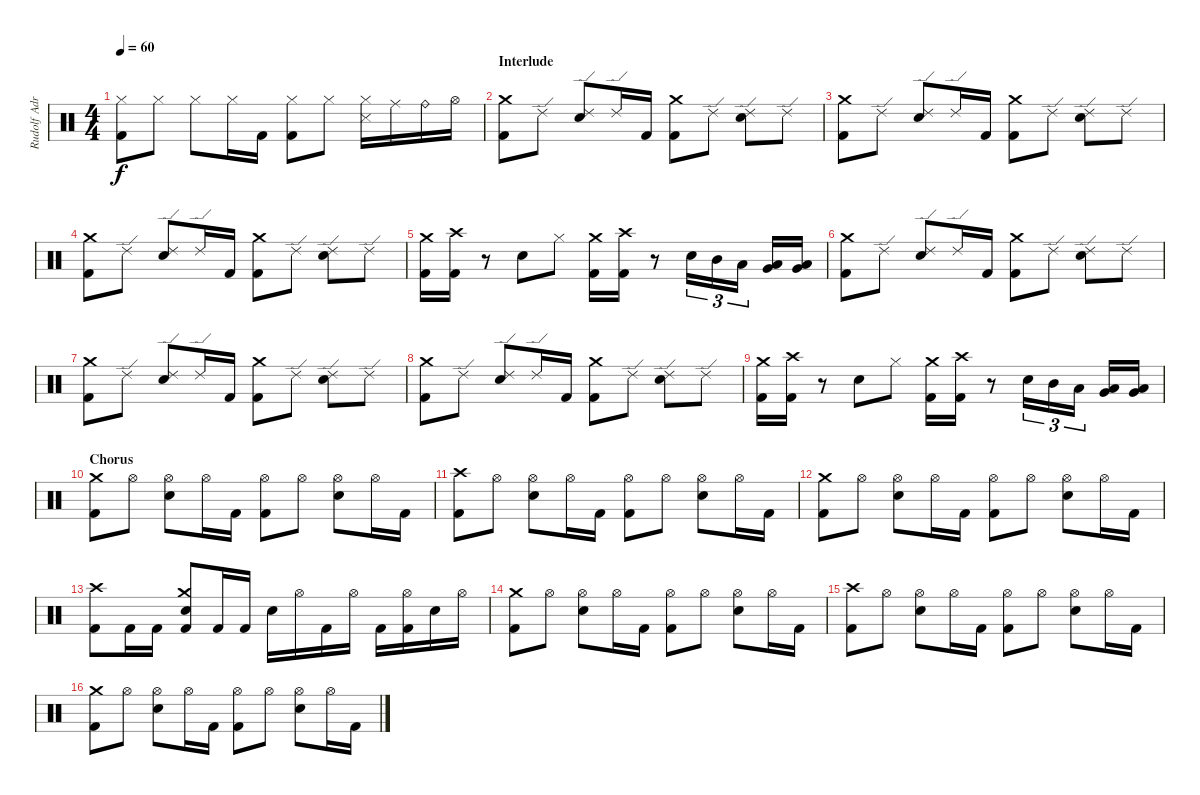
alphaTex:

\track ("Rudolf Adrianus Jolie" "Rudolf Adr") {instrument percussion}
\staff {score}
\articulation defaults
\ts (4 4)
\tempo 60
\clef neutral
\ks c
("Hi-Hat (closed)" "Kick (hit) 2").8{dy f} "Hi-Hat (closed)".8 "Hi-Hat (closed)".8 "Hi-Hat (closed)".16 "Kick (hit) 2".16 ("Hi-Hat (closed)" "Kick (hit) 2").8 "Hi-Hat (closed)".8 ("Hi-Hat (closed)" "Snare (side stick) 3").16 "Ride (middle)".16 "Ride (bell)".16 "Hi-Hat (open)".16 |
\section ("" "Interlude")
("Crash medium (hit)" "Kick (hit) 2").8 "Ride (edge) 2".8 ("Ride (edge) 2" "Snare (hit) 2").8 "Ride (edge) 2".16 "Kick (hit) 2".16 ("Crash medium (hit)" "Kick (hit) 2").8 "Ride (edge) 2".8 ("Ride (edge) 2" "Snare (hit) 2").8 "Ride (edge) 2".8 |
("Crash medium (hit)" "Kick (hit) 2").8 "Ride (edge) 2".8 ("Ride (edge) 2" "Snare (hit) 2").8 "Ride (edge) 2".16 "Kick (hit) 2".16 ("Crash medium (hit)" "Kick (hit) 2").8 "Ride (edge) 2".8 ("Ride (edge) 2" "Snare (hit) 2").8 "Ride (edge) 2".8 |
("Crash medium (hit)" "Kick (hit) 2").8 "Ride (edge) 2".8 ("Ride (edge) 2" "Snare (hit) 2").8 "Ride (edge) 2".16 "Kick (hit) 2".16 ("Crash medium (hit)" "Kick (hit) 2").8 "Ride (edge) 2".8 ("Ride (edge) 2" "Snare (hit) 2").8 "Ride (edge) 2".8 |
("Crash medium (hit)" "Kick (hit) 2").16 ("Crash high (hit)" "Kick (hit) 2").16 r.8 "Snare (hit) 2".8 "Hi-Hat (closed)".8 ("Crash medium (hit)" "Kick (hit) 2").16 ("Crash high (hit)" "Kick (hit) 2").16 r.8 "Snare (hit) 2".16{tu (3 2)} "Mid Tom (hit)".16{tu (3 2)} "Low Tom (hit)".16{tu (3 2)} ("Low Floor Tom (hit)" "Very Low Tom (hit)").16 ("Low Floor Tom (hit)" "Very Low Tom (hit)").16 |
("Crash medium (hit)" "Kick (hit) 2").8 "Ride (edge) 2".8 ("Ride (edge) 2" "Snare (hit) 2").8 "Ride (edge) 2".16 "Kick (hit) 2".16 ("Crash medium (hit)" "Kick (hit) 2").8 "Ride (edge) 2".8 ("Ride (edge) 2" "Snare (hit) 2").8 "Ride (edge) 2".8 |
("Crash medium (hit)" "Kick (hit) 2").8 "Ride (edge) 2".8 ("Ride (edge) 2" "Snare (hit) 2").8 "Ride (edge) 2".16 "Kick (hit) 2".16 ("Crash medium (hit)" "Kick (hit) 2").8 "Ride (edge) 2".8 ("Ride (edge) 2" "Snare (hit) 2").8 "Ride (edge) 2".8 |
("Crash medium (hit)" "Kick (hit) 2").8 "Ride (edge) 2".8 ("Ride (edge) 2" "Snare (hit) 2").8 "Ride (edge) 2".16 "Kick (hit) 2".16 ("Crash medium (hit)" "Kick (hit) 2").8 "Ride (edge) 2".8 ("Ride (edge) 2" "Snare (hit) 2").8 "Ride (edge) 2".8 |
("Crash medium (hit)" "Kick (hit) 2").16 ("Crash high (hit)" "Kick (hit) 2").16 r.8 "Snare (hit) 2".8 "Hi-Hat (closed)".8 ("Crash medium (hit)" "Kick (hit) 2").16 ("Crash high (hit)" "Kick (hit) 2").16 r.8 "Snare (hit) 2".16{tu (3 2)} "Mid Tom (hit)".16{tu (3 2)} "Low Tom (hit)".16{tu (3 2)} ("Low Floor Tom (hit)" "Very Low Tom (hit)").16 ("Low Floor Tom (hit)" "Very Low Tom (hit)").16 |
\section ("" "Chorus")
("Crash medium (hit)" "Kick (hit) 2").8 "Hi-Hat (open)".8 ("Hi-Hat (open)" "Snare (hit) 2").8 "Hi-Hat (open)".16 "Kick (hit) 2".16 ("Hi-Hat (open)" "Kick (hit) 2").8 "Hi-Hat (open)".8 ("Hi-Hat (open)" "Snare (hit) 2").8 "Hi-Hat (open)".16 "Kick (hit) 2".16 |
("Crash high (hit)" "Kick (hit) 2").8 "Hi-Hat (open)".8 ("Hi-Hat (open)" "Snare (hit) 2").8 "Hi-Hat (open)".16 "Kick (hit) 2".16 ("Hi-Hat (open)" "Kick (hit) 2").8 "Hi-Hat (open)".8 ("Hi-Hat (open)" "Snare (hit) 2").8 "Hi-Hat (open)".16 "Kick (hit) 2".16 |
("Crash medium (hit)" "Kick (hit) 2").8 "Hi-Hat (open)".8 ("Hi-Hat (open)" "Snare (hit) 2").8 "Hi-Hat (open)".16 "Kick (hit) 2".16 ("Hi-Hat (open)" "Kick (hit) 2").8 "Hi-Hat (open)".8 ("Hi-Hat (open)" "Snare (hit) 2").8 "Hi-Hat (open)".16 "Kick (hit) 2".16 |
("Crash high (hit)" "Kick (hit) 2").8 "Kick (hit) 2".16 "Kick (hit) 2".16 ("Crash medium (hit)" "Snare (hit) 2" "Kick (hit) 2").8 "Kick (hit) 2".16 "Kick (hit) 2".16 "Snare (hit) 2".16 "Hi-Hat (open)".16 "Kick (hit) 2".16 "Hi-Hat (open)".16 "Kick (hit) 2".16 ("Hi-Hat (open)" "Kick (hit) 2").16 "Snare (hit) 2".16 "Hi-Hat (open)".16 |
("Crash medium (hit)" "Kick (hit) 2").8 "Hi-Hat (open)".8 ("Hi-Hat (open)" "Snare (hit) 2").8 "Hi-Hat (open)".16 "Kick (hit) 2".16 ("Hi-Hat (open)" "Kick (hit) 2").8 "Hi-Hat (open)".8 ("Hi-Hat (open)" "Snare (hit) 2").8 "Hi-Hat (open)".16 "Kick (hit) 2".16 |
("Crash high (hit)" "Kick (hit) 2").8 "Hi-Hat (open)".8 ("Hi-Hat (open)" "Snare (hit) 2").8 "Hi-Hat (open)".16 "Kick (hit) 2".16 ("Hi-Hat (open)" "Kick (hit) 2").8 "Hi-Hat (open)".8 ("Hi-Hat (open)" "Snare (hit) 2").8 "Hi-Hat (open)".16 "Kick (hit) 2".16 |
("Crash medium (hit)" "Kick (hit) 2").8 "Hi-Hat (open)".8 ("Hi-Hat (open)" "Snare (hit) 2").8 "Hi-Hat (open)".16 "Kick (hit) 2".16 ("Hi-Hat (open)" "Kick (hit) 2").8 "Hi-Hat (open)".8 ("Hi-Hat (open)" "Snare (hit) 2").8 "Hi-Hat (open)".16 "Kick (hit) 2".16
